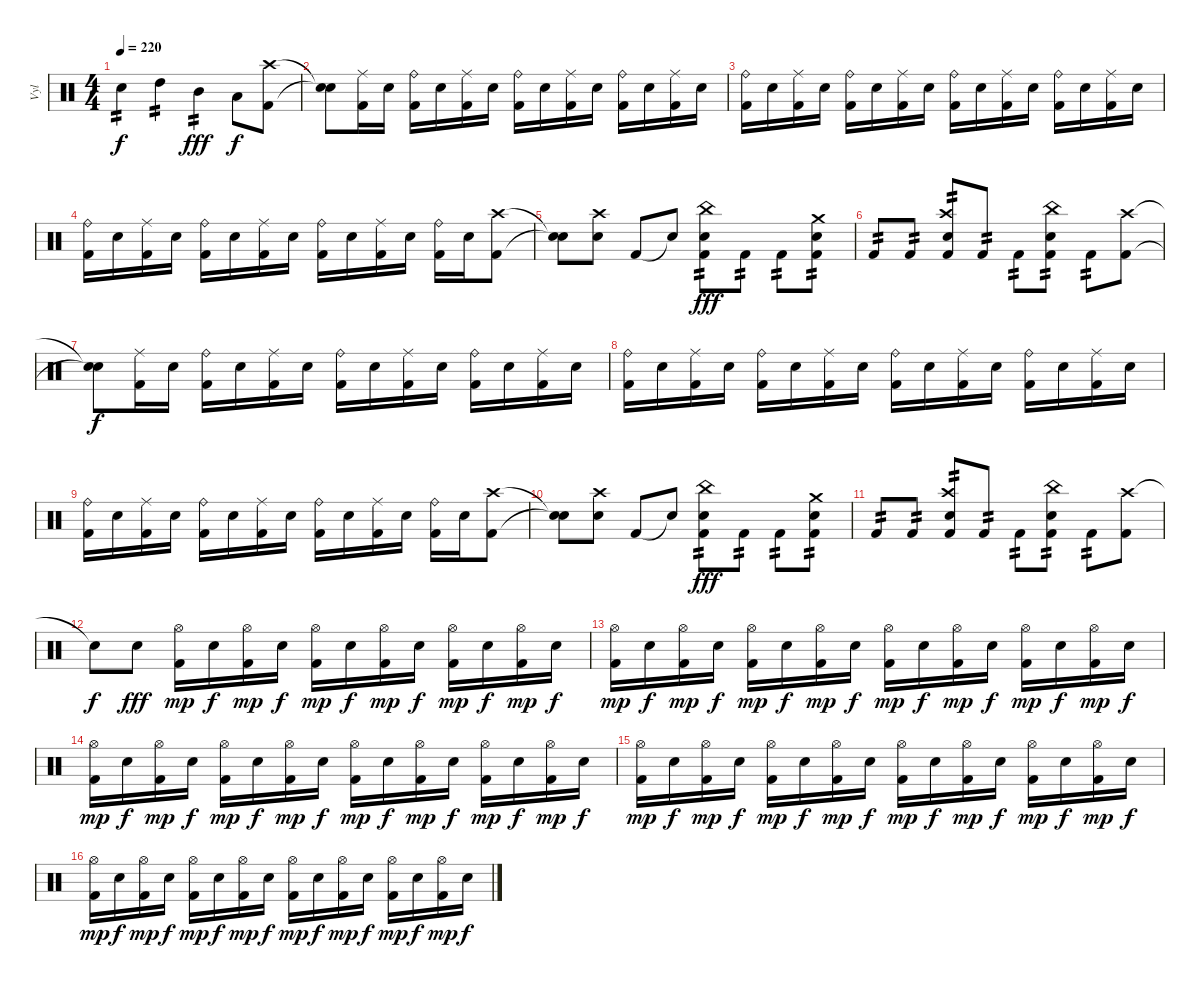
\track ("Vyl" "Vyl") {instrument percussion}
\staff {score}
\articulation defaults
\ts (4 4)
\tempo 220
\clef neutral
\ks c "Snare (hit) 2".4{tp 2 dy f} "High Tom (hit)".4{tp 2} "Mid Tom (hit)".4{tp 2 dy fff} "Low Tom (hit)".8{dy f}
("Crash high (hit)" "Kick (hit) 2").8 |
("Snare (hit)"{t} "Snare (hit)"{t}).8 ("Ride (middle)" "Kick (hit) 2").16 "Snare (hit) 2".16 ("Ride (bell)" "Kick (hit) 2").16 "Snare (hit) 2".16 ("Ride (middle)" "Kick (hit) 2").16 "Snare (hit) 2".16 ("Ride (bell)" "Kick (hit) 2").16 "Snare (hit) 2".16 ("Ride (middle)" "Kick (hit) 2").16 "Snare (hit) 2".16 ("Ride (bell)" "Kick (hit) 2").16 "Snare (hit) 2".16 ("Ride (middle)" "Kick (hit) 2").16 "Snare (hit) 2".16 |
("Ride (bell)" "Kick (hit) 2").16 "Snare (hit) 2".16 ("Ride (middle)" "Kick (hit) 2").16 "Snare (hit) 2".16 ("Ride (bell)" "Kick (hit) 2").16 "Snare (hit) 2".16 ("Ride (middle)" "Kick (hit) 2").16 "Snare (hit) 2".16 ("Ride (bell)" "Kick (hit) 2").16 "Snare (hit) 2".16 ("Ride (middle)" "Kick (hit) 2").16 "Snare (hit) 2".16 ("Ride (bell)" "Kick (hit) 2").16 "Snare (hit) 2".16 ("Ride (middle)" "Kick (hit) 2").16 "Snare (hit) 2".16 |
("Ride (bell)" "Kick (hit) 2").16 "Snare (hit) 2".16 ("Ride (middle)" "Kick (hit) 2").16 "Snare (hit) 2".16 ("Ride (bell)" "Kick (hit) 2").16 "Snare (hit) 2".16 ("Ride (middle)" "Kick (hit) 2").16 "Snare (hit) 2".16 ("Ride (bell)" "Kick (hit) 2").16 "Snare (hit) 2".16 ("Ride (middle)" "Kick (hit) 2").16 "Snare (hit) 2".16 ("Ride (bell)" "Kick (hit) 2").16 "Snare (hit) 2".16 ("Crash high (hit)" "Kick (hit) 2").8 |
("Snare (hit)"{t} "Snare (hit)"{t}).8 ("Crash high (hit)" "Snare (hit) 2").8 "Kick (hit) 2".8 "Snare (hit)"{t}.8 ("China (hit)" "Snare (hit) 2" "Kick (hit) 2").8{tp 2 dy fff} "Kick (hit) 2".8{tp 2} "Kick (hit) 2".8{tp 2} ("Crash medium (hit)" "Snare (hit) 2" "Kick (hit) 2").8{tp 2} |
"Kick (hit) 2".8{tp 2} "Kick (hit) 2".8{tp 2} ("Crash high (hit)" "Snare (hit) 2" "Kick (hit) 2").8{tp 2} "Kick (hit) 2".8{tp 2} "Kick (hit) 2".8{tp 2} ("China (hit)" "Snare (hit) 2" "Kick (hit) 2").8{tp 2} "Kick (hit) 2".8{tp 2} ("Crash high (hit)" "Kick (hit) 2").8 |
("Snare (hit)"{t} "Snare (hit)"{t}).8{dy f} ("Ride (middle)" "Kick (hit) 2").16 "Snare (hit) 2".16 ("Ride (bell)" "Kick (hit) 2").16 "Snare (hit) 2".16 ("Ride (middle)" "Kick (hit) 2").16 "Snare (hit) 2".16 ("Ride (bell)" "Kick (hit) 2").16 "Snare (hit) 2".16 ("Ride (middle)" "Kick (hit) 2").16 "Snare (hit) 2".16 ("Ride (bell)" "Kick (hit) 2").16 "Snare (hit) 2".16 ("Ride (middle)" "Kick (hit) 2").16 "Snare (hit) 2".16 |
("Ride (bell)" "Kick (hit) 2").16 "Snare (hit) 2".16 ("Ride (middle)" "Kick (hit) 2").16 "Snare (hit) 2".16 ("Ride (bell)" "Kick (hit) 2").16 "Snare (hit) 2".16 ("Ride (middle)" "Kick (hit) 2").16 "Snare (hit) 2".16 ("Ride (bell)" "Kick (hit) 2").16 "Snare (hit) 2".16 ("Ride (middle)" "Kick (hit) 2").16 "Snare (hit) 2".16 ("Ride (bell)" "Kick (hit) 2").16 "Snare (hit) 2".16 ("Ride (middle)" "Kick (hit) 2").16 "Snare (hit) 2".16 |
("Ride (bell)" "Kick (hit) 2").16 "Snare (hit) 2".16 ("Ride (middle)" "Kick (hit) 2").16 "Snare (hit) 2".16 ("Ride (bell)" "Kick (hit) 2").16 "Snare (hit) 2".16 ("Ride (middle)" "Kick (hit) 2").16 "Snare (hit) 2".16 ("Ride (bell)" "Kick (hit) 2").16 "Snare (hit) 2".16 ("Ride (middle)" "Kick (hit) 2").16 "Snare (hit) 2".16 ("Ride (bell)" "Kick (hit) 2").16 "Snare (hit) 2".16 ("Crash high (hit)" "Kick (hit) 2").8 |
("Snare (hit)"{t} "Snare (hit)"{t}).8 ("Crash high (hit)" "Snare (hit) 2").8 "Kick (hit) 2".8 "Snare (hit)"{t}.8 ("China (hit)" "Snare (hit) 2" "Kick (hit) 2").8{tp 2 dy fff} "Kick (hit) 2".8{tp 2} "Kick (hit) 2".8{tp 2} ("Crash medium (hit)" "Snare (hit) 2" "Kick (hit) 2").8{tp 2} |
"Kick (hit) 2".8{tp 2} "Kick (hit) 2".8{tp 2} ("Crash high (hit)" "Snare (hit) 2" "Kick (hit) 2").8{tp 2} "Kick (hit) 2".8{tp 2} "Kick (hit) 2".8{tp 2} ("China (hit)" "Snare (hit) 2" "Kick (hit) 2").8{tp 2} "Kick (hit) 2".8{tp 2} ("Crash high (hit)" "Kick (hit) 2").8 |
"Snare (hit)"{t}.8{dy f} "Snare (hit) 2".8{dy fff} ("Hi-Hat (open)" "Kick (hit) 2").16{dy mp} "Snare (hit) 2".16{dy f} ("Hi-Hat (open)" "Kick (hit) 2").16{dy mp} "Snare (hit) 2".16{dy f} ("Hi-Hat (open)" "Kick (hit) 2").16{dy mp} "Snare (hit) 2".16{dy f} ("Hi-Hat (open)" "Kick (hit) 2").16{dy mp} "Snare (hit) 2".16{dy f} ("Hi-Hat (open)" "Kick (hit) 2").16{dy mp} "Snare (hit) 2".16{dy f} ("Hi-Hat (open)" "Kick (hit) 2").16{dy mp} "Snare (hit) 2".16{dy f} |
("Hi-Hat (open)" "Kick (hit) 2").16{dy mp} "Snare (hit) 2".16{dy f} ("Hi-Hat (open)" "Kick (hit) 2").16{dy mp} "Snare (hit) 2".16{dy f} ("Hi-Hat (open)" "Kick (hit) 2").16{dy mp} "Snare (hit) 2".16{dy f} ("Hi-Hat (open)" "Kick (hit) 2").16{dy mp} "Snare (hit) 2".16{dy f} ("Hi-Hat (open)" "Kick (hit) 2").16{dy mp} "Snare (hit) 2".16{dy f} ("Hi-Hat (open)" "Kick (hit) 2").16{dy mp} "Snare (hit) 2".16{dy f} ("Hi-Hat (open)" "Kick (hit) 2").16{dy mp} "Snare (hit) 2".16{dy f} ("Hi-Hat (open)" "Kick (hit) 2").16{dy mp} "Snare (hit) 2".16{dy f} |
("Hi-Hat (open)" "Kick (hit) 2").16{dy mp} "Snare (hit) 2".16{dy f} ("Hi-Hat (open)" "Kick (hit) 2").16{dy mp} "Snare (hit) 2".16{dy f} ("Hi-Hat (open)" "Kick (hit) 2").16{dy mp} "Snare (hit) 2".16{dy f} ("Hi-Hat (open)" "Kick (hit) 2").16{dy mp} "Snare (hit) 2".16{dy f} ("Hi-Hat (open)" "Kick (hit) 2").16{dy mp} "Snare (hit) 2".16{dy f} ("Hi-Hat (open)" "Kick (hit) 2").16{dy mp} "Snare (hit) 2".16{dy f} ("Hi-Hat (open)" "Kick (hit) 2").16{dy mp} "Snare (hit) 2".16{dy f} ("Hi-Hat (open)" "Kick (hit) 2").16{dy mp} "Snare (hit) 2".16{dy f} |
("Hi-Hat (open)" "Kick (hit) 2").16{dy mp} "Snare (hit) 2".16{dy f} ("Hi-Hat (open)" "Kick (hit) 2").16{dy mp} "Snare (hit) 2".16{dy f} ("Hi-Hat (open)" "Kick (hit) 2").16{dy mp} "Snare (hit) 2".16{dy f} ("Hi-Hat (open)" "Kick (hit) 2").16{dy mp} "Snare (hit) 2".16{dy f} ("Hi-Hat (open)" "Kick (hit) 2").16{dy mp} "Snare (hit) 2".16{dy f} ("Hi-Hat (open)" "Kick (hit) 2").16{dy mp} "Snare (hit) 2".16{dy f} ("Hi-Hat (open)" "Kick (hit) 2").16{dy mp} "Snare (hit) 2".16{dy f} ("Hi-Hat (open)" "Kick (hit) 2").16{dy mp} "Snare (hit) 2".16{dy f} |
("Hi-Hat (open)" "Kick (hit) 2").16{dy mp} "Snare (hit) 2".16{dy f} ("Hi-Hat (open)" "Kick (hit) 2").16{dy mp} "Snare (hit) 2".16{dy f} ("Hi-Hat (open)" "Kick (hit) 2").16{dy mp} "Snare (hit) 2".16{dy f} ("Hi-Hat (open)" "Kick (hit) 2").16{dy mp} "Snare (hit) 2".16{dy f} ("Hi-Hat (open)" "Kick (hit) 2").16{dy mp} "Snare (hit) 2".16{dy f} ("Hi-Hat (open)" "Kick (hit) 2").16{dy mp} "Snare (hit) 2".16{dy f} ("Hi-Hat (open)" "Kick (hit) 2").16{dy mp} "Snare (hit) 2".16{dy f} ("Hi-Hat (open)" "Kick (hit) 2").16{dy mp} "Snare (hit) 2".16{dy f}
